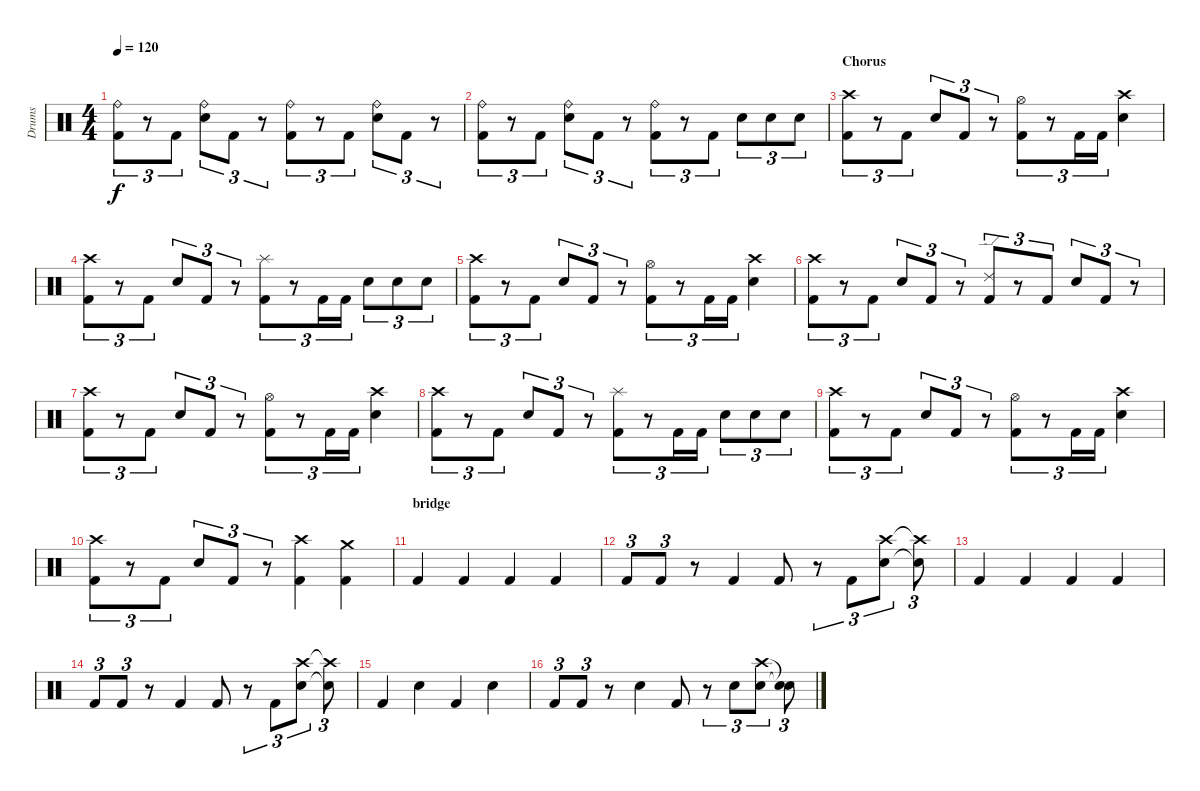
\track ("Drums" "Drums") {instrument percussion}
\staff {score}
\articulation defaults
\ts (4 4)
\tempo 120
\clef neutral
\ks c
("Ride (bell)" "Kick (hit) 2").8{tu (3 2) dy f} r.8{tu (3 2)} "Kick (hit) 2".8{tu (3 2)} ("Ride (bell)" "Snare (hit) 2").8{tu (3 2)} "Kick (hit) 2".8{tu (3 2)} r.8{tu (3 2)} ("Ride (bell)" "Kick (hit) 2").8{tu (3 2)} r.8{tu (3 2)} "Kick (hit) 2".8{tu (3 2)} ("Ride (bell)" "Snare (hit) 2").8{tu (3 2)} "Kick (hit) 2".8{tu (3 2)} r.8{tu (3 2)} |
("Ride (bell)" "Kick (hit) 2").8{tu (3 2)} r.8{tu (3 2)} "Kick (hit) 2".8{tu (3 2)} ("Ride (bell)" "Snare (hit) 2").8{tu (3 2)} "Kick (hit) 2".8{tu (3 2)} r.8{tu (3 2)} ("Ride (bell)" "Kick (hit) 2").8{tu (3 2)} r.8{tu (3 2)} "Kick (hit) 2".8{tu (3 2)} "Snare (hit) 2".8{tu (3 2)} "Snare (hit) 2".8{tu (3 2)} "Snare (hit) 2".8{tu (3 2)} |
\section ("" "Chorus")
("Crash high (hit)" "Kick (hit) 2").8{tu (3 2)} r.8{tu (3 2)} "Kick (hit) 2".8{tu (3 2)} "Snare (hit) 2".8{tu (3 2)} "Kick (hit) 2".8{tu (3 2)} r.8{tu (3 2)} ("Hi-Hat (open)" "Kick (hit) 2").8{tu (3 2)} r.8{tu (3 2)} "Kick (hit) 2".16{tu (3 2)} "Kick (hit) 2".16{tu (3 2)} ("Crash high (hit)" "Snare (hit) 2").4 |
("Crash high (hit)" "Kick (hit) 2").8{tu (3 2)} r.8{tu (3 2)} "Kick (hit) 2".8{tu (3 2)} "Snare (hit) 2".8{tu (3 2)} "Kick (hit) 2".8{tu (3 2)} r.8{tu (3 2)} ("Splash (hit)" "Kick (hit) 2").8{tu (3 2)} r.8{tu (3 2)} "Kick (hit) 2".16{tu (3 2)} "Kick (hit) 2".16{tu (3 2)} "Snare (hit) 2".8{tu (3 2)} "Snare (hit) 2".8{tu (3 2)} "Snare (hit) 2".8{tu (3 2)} |
("Crash high (hit)" "Kick (hit) 2").8{tu (3 2)} r.8{tu (3 2)} "Kick (hit) 2".8{tu (3 2)} "Snare (hit) 2".8{tu (3 2)} "Kick (hit) 2".8{tu (3 2)} r.8{tu (3 2)} ("Hi-Hat (open)" "Kick (hit) 2").8{tu (3 2)} r.8{tu (3 2)} "Kick (hit) 2".16{tu (3 2)} "Kick (hit) 2".16{tu (3 2)} ("Crash high (hit)" "Snare (hit) 2").4 |
("Crash high (hit)" "Kick (hit) 2").8{tu (3 2)} r.8{tu (3 2)} "Kick (hit) 2".8{tu (3 2)} "Snare (hit) 2".8{tu (3 2)} "Kick (hit) 2".8{tu (3 2)} r.8{tu (3 2)} ("Ride (edge) 2" "Kick (hit) 2").8{tu (3 2)} r.8{tu (3 2)} "Kick (hit) 2".8{tu (3 2)} "Snare (hit) 2".8{tu (3 2)} "Kick (hit) 2".8{tu (3 2)} r.8{tu (3 2)} |
("Crash high (hit)" "Kick (hit) 2").8{tu (3 2)} r.8{tu (3 2)} "Kick (hit) 2".8{tu (3 2)} "Snare (hit) 2".8{tu (3 2)} "Kick (hit) 2".8{tu (3 2)} r.8{tu (3 2)} ("Hi-Hat (open)" "Kick (hit) 2").8{tu (3 2)} r.8{tu (3 2)} "Kick (hit) 2".16{tu (3 2)} "Kick (hit) 2".16{tu (3 2)} ("Crash high (hit)" "Snare (hit) 2").4 |
("Crash high (hit)" "Kick (hit) 2").8{tu (3 2)} r.8{tu (3 2)} "Kick (hit) 2".8{tu (3 2)} "Snare (hit) 2".8{tu (3 2)} "Kick (hit) 2".8{tu (3 2)} r.8{tu (3 2)} ("Splash (hit)" "Kick (hit) 2").8{tu (3 2)} r.8{tu (3 2)} "Kick (hit) 2".16{tu (3 2)} "Kick (hit) 2".16{tu (3 2)} "Snare (hit) 2".8{tu (3 2)} "Snare (hit) 2".8{tu (3 2)} "Snare (hit) 2".8{tu (3 2)} |
("Crash high (hit)" "Kick (hit) 2").8{tu (3 2)} r.8{tu (3 2)} "Kick (hit) 2".8{tu (3 2)} "Snare (hit) 2".8{tu (3 2)} "Kick (hit) 2".8{tu (3 2)} r.8{tu (3 2)} ("Hi-Hat (open)" "Kick (hit) 2").8{tu (3 2)} r.8{tu (3 2)} "Kick (hit) 2".16{tu (3 2)} "Kick (hit) 2".16{tu (3 2)} ("Crash high (hit)" "Snare (hit) 2").4 |
("Crash high (hit)" "Kick (hit) 2").8{tu (3 2)} r.8{tu (3 2)} "Kick (hit) 2".8{tu (3 2)} "Snare (hit) 2".8{tu (3 2)} "Kick (hit) 2".8{tu (3 2)} r.8{tu (3 2)} ("Crash high (hit)" "Kick (hit) 2").4 ("Crash medium (hit)" "Kick (hit) 2").4 |
\section ("" "bridge")
"Kick (hit) 2".4 "Kick (hit) 2".4 "Kick (hit) 2".4 "Kick (hit) 2".4 |
"Kick (hit) 2".8{tu (3 2)} "Kick (hit) 2".8{tu (3 2)} r.8 "Kick (hit) 2".4 "Kick (hit) 2".8 r.8{tu (3 2)} "Kick (hit) 2".8{tu (3 2)} ("Crash high (hit)" "Snare (hit) 2").8{tu (3 2)} ("Crash high (hit)"{t} "Snare (hit) 2"{t}).8{tu (3 2)} |
"Kick (hit) 2".4 "Kick (hit) 2".4 "Kick (hit) 2".4 "Kick (hit) 2".4 |
"Kick (hit) 2".8{tu (3 2)} "Kick (hit) 2".8{tu (3 2)} r.8 "Kick (hit) 2".4 "Kick (hit) 2".8 r.8{tu (3 2)} "Kick (hit) 2".8{tu (3 2)} ("Crash high (hit)" "Snare (hit) 2").8{tu (3 2)} ("Crash high (hit)"{t} "Snare (hit) 2"{t}).8{tu (3 2)} |
"Kick (hit) 2".4 "Snare (hit) 2".4 "Kick (hit) 2".4 "Snare (hit) 2".4 |
"Kick (hit) 2".8{tu (3 2)} "Kick (hit) 2".8{tu (3 2)} r.8 "Snare (hit) 2".4 "Kick (hit) 2".8 r.8{tu (3 2)} "Snare (hit) 2".8{tu (3 2)} ("Crash high (hit)" "Snare (hit) 2").8{tu (3 2)} ("Snare (hit)"{t} "Snare (hit) 2"{t}).8{tu (3 2)}
